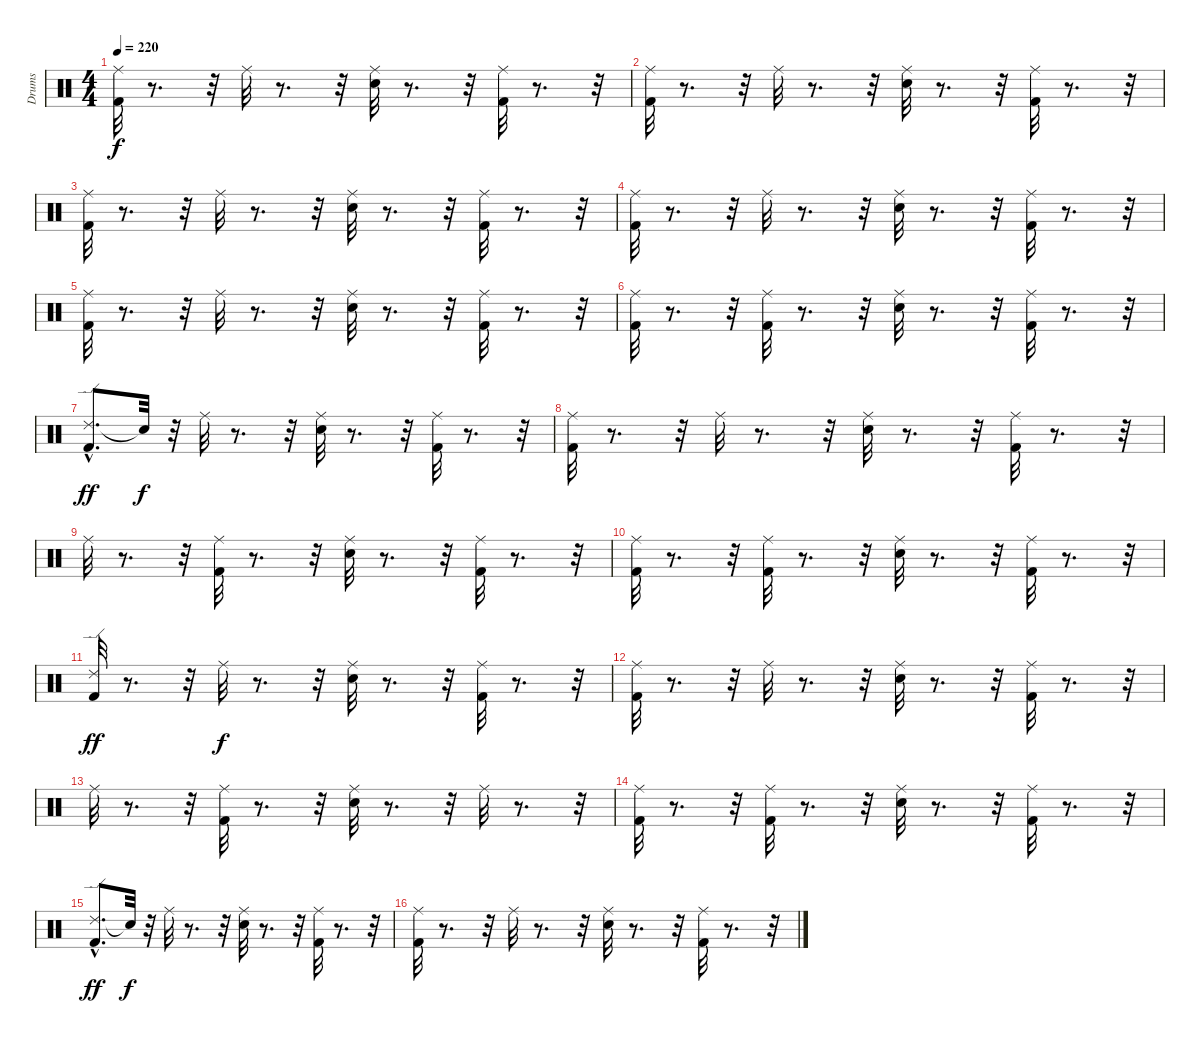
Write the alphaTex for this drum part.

\track ("Drums" "Drums") {instrument percussion}
\staff {score}
\articulation defaults
\ts (4 4)
\tempo 220
\clef neutral
\ks c
("Ride (middle)" "Kick (hit) 2").32{dy f} r.8{d} r.32 "Ride (middle)".32 r.8{d} r.32 ("Ride (middle)" "Snare (hit) 2").32 r.8{d} r.32 ("Ride (middle)" "Kick (hit) 2").32 r.8{d} r.32 |
("Ride (middle)" "Kick (hit) 2").32 r.8{d} r.32 "Ride (middle)".32 r.8{d} r.32 ("Ride (middle)" "Snare (hit) 2").32 r.8{d} r.32 ("Ride (middle)" "Kick (hit) 2").32 r.8{d} r.32 |
("Ride (middle)" "Kick (hit) 2").32 r.8{d} r.32 "Ride (middle)".32 r.8{d} r.32 ("Ride (middle)" "Snare (hit) 2").32 r.8{d} r.32 ("Ride (middle)" "Kick (hit) 2").32 r.8{d} r.32 |
("Ride (middle)" "Kick (hit) 2").32 r.8{d} r.32 "Ride (middle)".32 r.8{d} r.32 ("Ride (middle)" "Snare (hit) 2").32 r.8{d} r.32 ("Ride (middle)" "Kick (hit) 2").32 r.8{d} r.32 |
("Ride (middle)" "Kick (hit) 2").32 r.8{d} r.32 "Ride (middle)".32 r.8{d} r.32 ("Ride (middle)" "Snare (hit) 2").32 r.8{d} r.32 ("Ride (middle)" "Kick (hit) 2").32 r.8{d} r.32 |
("Ride (middle)" "Kick (hit) 2").32 r.8{d} r.32 ("Kick (hit) 2" "Ride (middle)").32 r.8{d} r.32 ("Ride (middle)" "Snare (hit) 2").32 r.8{d} r.32 ("Ride (middle)" "Kick (hit) 2").32 r.8{d} r.32 |
("Ride (edge) 2"{hac} "Kick (hit) 2").8{d dy ff} "Snare (hit)"{t}.32{dy f} r.32 "Ride (middle)".32 r.8{d} r.32 ("Snare (hit) 2" "Ride (middle)").32 r.8{d} r.32 ("Kick (hit) 2" "Ride (middle)").32 r.8{d} r.32 |
("Kick (hit) 2" "Ride (middle)").32 r.8{d} r.32 "Ride (middle)".32 r.8{d} r.32 ("Snare (hit) 2" "Ride (middle)").32 r.8{d} r.32 ("Kick (hit) 2" "Ride (middle)").32 r.8{d} r.32 |
"Ride (middle)".32 r.8{d} r.32 ("Kick (hit) 2" "Ride (middle)").32 r.8{d} r.32 ("Ride (middle)" "Snare (hit) 2").32 r.8{d} r.32 ("Kick (hit) 2" "Ride (middle)").32 r.8{d} r.32 |
("Kick (hit) 2" "Ride (middle)").32 r.8{d} r.32 ("Ride (middle)" "Kick (hit) 2").32 r.8{d} r.32 ("Ride (middle)" "Snare (hit) 2").32 r.8{d} r.32 ("Ride (middle)" "Kick (hit) 2").32 r.8{d} r.32 |
("Ride (edge) 2" "Kick (hit) 2").32{dy ff} r.8{d} r.32 "Ride (middle)".32{dy f} r.8{d} r.32 ("Ride (middle)" "Snare (hit) 2").32 r.8{d} r.32 ("Ride (middle)" "Kick (hit) 2").32 r.8{d} r.32 |
("Ride (middle)" "Kick (hit) 2").32 r.8{d} r.32 "Ride (middle)".32 r.8{d} r.32 ("Ride (middle)" "Snare (hit) 2").32 r.8{d} r.32 ("Kick (hit) 2" "Ride (middle)").32 r.8{d} r.32 |
"Ride (middle)".32 r.8{d} r.32 ("Kick (hit) 2" "Ride (middle)").32 r.8{d} r.32 ("Ride (middle)" "Snare (hit) 2").32 r.8{d} r.32 "Ride (middle)".32 r.8{d} r.32 |
("Ride (middle)" "Kick (hit) 2").32 r.8{d} r.32 ("Ride (middle)" "Kick (hit) 2").32 r.8{d} r.32 ("Ride (middle)" "Snare (hit) 2").32 r.8{d} r.32 ("Ride (middle)" "Kick (hit) 2").32 r.8{d} r.32 |
("Ride (edge) 2"{hac} "Kick (hit) 2").8{d dy ff} "Snare (hit)"{t}.32{dy f} r.32 "Ride (middle)".32 r.8{d} r.32 ("Snare (hit) 2" "Ride (middle)").32 r.8{d} r.32 ("Kick (hit) 2" "Ride (middle)").32 r.8{d} r.32 |
("Kick (hit) 2" "Ride (middle)").32 r.8{d} r.32 "Ride (middle)".32 r.8{d} r.32 ("Snare (hit) 2" "Ride (middle)").32 r.8{d} r.32 ("Kick (hit) 2" "Ride (middle)").32 r.8{d} r.32
